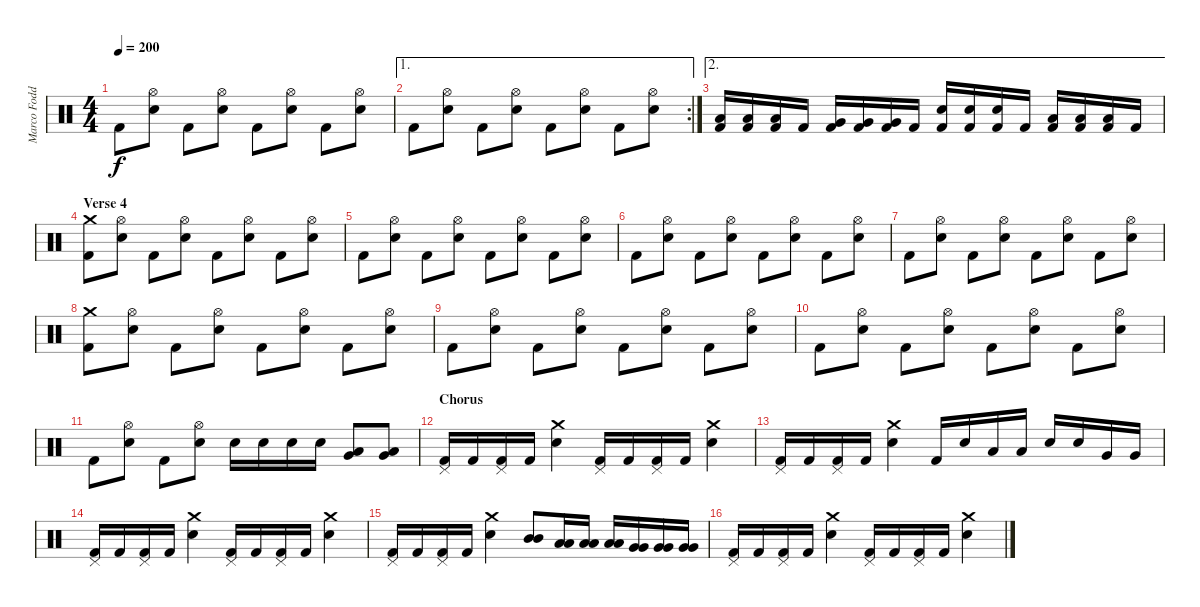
\track ("Marco Foddis " "Marco Fodd") {instrument percussion}
\staff {score}
\articulation defaults
\ts (4 4)
\tempo 200
\clef neutral
\ks c "Kick (hit) 2".8{dy f}
("Hi-Hat (open)" "Electric Snare (hit)").8 "Kick (hit) 2".8 ("Hi-Hat (open)" "Electric Snare (hit)").8 "Kick (hit) 2".8 ("Hi-Hat (open)" "Electric Snare (hit)").8 "Kick (hit) 2".8 ("Hi-Hat (open)" "Electric Snare (hit)").8 |
\ae 1
\rc 2 "Kick (hit) 2".8
("Hi-Hat (open)" "Electric Snare (hit)").8 "Kick (hit) 2".8 ("Hi-Hat (open)" "Electric Snare (hit)").8 "Kick (hit) 2".8 ("Hi-Hat (open)" "Electric Snare (hit)").8 "Kick (hit) 2".8 ("Hi-Hat (open)" "Electric Snare (hit)").8 |
\ae 2
("Low Tom (hit)" "Kick (hit) 2").16 ("Low Tom (hit)" "Kick (hit) 2").16 ("Low Tom (hit)" "Kick (hit) 2").16 "Kick (hit) 2".16 ("Very Low Tom (hit)" "Kick (hit) 2").16 ("Very Low Tom (hit)" "Kick (hit) 2").16 ("Very Low Tom (hit)" "Kick (hit) 2").16 "Kick (hit) 2".16 ("Electric Snare (hit)" "Kick (hit) 2").16 ("Electric Snare (hit)" "Kick (hit) 2").16 ("Electric Snare (hit)" "Kick (hit) 2").16 "Kick (hit) 2".16 ("Low Floor Tom (hit)" "Kick (hit) 2").16 ("Low Floor Tom (hit)" "Kick (hit) 2").16 ("Low Floor Tom (hit)" "Kick (hit) 2").16 "Kick (hit) 2".16 |
\section ("" "Verse 4")
("Crash medium (hit)" "Kick (hit) 2").8 ("Hi-Hat (open)" "Electric Snare (hit)").8 "Kick (hit) 2".8 ("Hi-Hat (open)" "Electric Snare (hit)").8 "Kick (hit) 2".8 ("Hi-Hat (open)" "Electric Snare (hit)").8 "Kick (hit) 2".8 ("Hi-Hat (open)" "Electric Snare (hit)").8 |
"Kick (hit) 2".8 ("Hi-Hat (open)" "Electric Snare (hit)").8 "Kick (hit) 2".8 ("Hi-Hat (open)" "Electric Snare (hit)").8 "Kick (hit) 2".8 ("Hi-Hat (open)" "Electric Snare (hit)").8 "Kick (hit) 2".8 ("Hi-Hat (open)" "Electric Snare (hit)").8 |
"Kick (hit) 2".8 ("Hi-Hat (open)" "Electric Snare (hit)").8 "Kick (hit) 2".8 ("Hi-Hat (open)" "Electric Snare (hit)").8 "Kick (hit) 2".8 ("Hi-Hat (open)" "Electric Snare (hit)").8 "Kick (hit) 2".8 ("Hi-Hat (open)" "Electric Snare (hit)").8 |
"Kick (hit) 2".8 ("Hi-Hat (open)" "Electric Snare (hit)").8 "Kick (hit) 2".8 ("Hi-Hat (open)" "Electric Snare (hit)").8 "Kick (hit) 2".8 ("Hi-Hat (open)" "Electric Snare (hit)").8 "Kick (hit) 2".8 ("Hi-Hat (open)" "Electric Snare (hit)").8 |
("Crash medium (hit)" "Kick (hit) 2").8 ("Hi-Hat (open)" "Electric Snare (hit)").8 "Kick (hit) 2".8 ("Hi-Hat (open)" "Electric Snare (hit)").8 "Kick (hit) 2".8 ("Hi-Hat (open)" "Electric Snare (hit)").8 "Kick (hit) 2".8 ("Hi-Hat (open)" "Electric Snare (hit)").8 |
"Kick (hit) 2".8 ("Hi-Hat (open)" "Electric Snare (hit)").8 "Kick (hit) 2".8 ("Hi-Hat (open)" "Electric Snare (hit)").8 "Kick (hit) 2".8 ("Hi-Hat (open)" "Electric Snare (hit)").8 "Kick (hit) 2".8 ("Hi-Hat (open)" "Electric Snare (hit)").8 |
"Kick (hit) 2".8 ("Hi-Hat (open)" "Electric Snare (hit)").8 "Kick (hit) 2".8 ("Hi-Hat (open)" "Electric Snare (hit)").8 "Kick (hit) 2".8 ("Hi-Hat (open)" "Electric Snare (hit)").8 "Kick (hit) 2".8 ("Hi-Hat (open)" "Electric Snare (hit)").8 |
"Kick (hit) 2".8 ("Hi-Hat (open)" "Electric Snare (hit)").8 "Kick (hit) 2".8 ("Hi-Hat (open)" "Electric Snare (hit)").8 "Electric Snare (hit)".16 "Electric Snare (hit)".16 "Electric Snare (hit)".16 "Electric Snare (hit)".16 ("Low Tom (hit)" "Very Low Tom (hit)").8 ("Low Tom (hit)" "Very Low Tom (hit)").8 |
\section ("" "Chorus")
("Pedal Hi-Hat (hit)" "Kick (hit) 2").16 "Kick (hit) 2".16 ("Pedal Hi-Hat (hit)" "Kick (hit) 2").16 "Kick (hit) 2".16 ("Crash medium (hit)" "Electric Snare (hit)").4 ("Pedal Hi-Hat (hit)" "Kick (hit) 2").16 "Kick (hit) 2".16 ("Pedal Hi-Hat (hit)" "Kick (hit) 2").16 "Kick (hit) 2".16 ("Crash medium (hit)" "Electric Snare (hit)").4 |
("Pedal Hi-Hat (hit)" "Kick (hit) 2").16 "Kick (hit) 2".16 ("Pedal Hi-Hat (hit)" "Kick (hit) 2").16 "Kick (hit) 2".16 ("Crash medium (hit)" "Electric Snare (hit)").4 "Kick (hit) 2".16 "Electric Snare (hit)".16 "Low Tom (hit)".16 "Low Tom (hit)".16 "Electric Snare (hit)".16 "Electric Snare (hit)".16 "Very Low Tom (hit)".16 "Very Low Tom (hit)".16 |
("Pedal Hi-Hat (hit)" "Kick (hit) 2").16 "Kick (hit) 2".16 ("Pedal Hi-Hat (hit)" "Kick (hit) 2").16 "Kick (hit) 2".16 ("Crash medium (hit)" "Electric Snare (hit)").4 ("Pedal Hi-Hat (hit)" "Kick (hit) 2").16 "Kick (hit) 2".16 ("Pedal Hi-Hat (hit)" "Kick (hit) 2").16 "Kick (hit) 2".16 ("Crash medium (hit)" "Electric Snare (hit)").4 |
("Pedal Hi-Hat (hit)" "Kick (hit) 2").16 "Kick (hit) 2".16 ("Pedal Hi-Hat (hit)" "Kick (hit) 2").16 "Kick (hit) 2".16 ("Crash medium (hit)" "Electric Snare (hit)").4 ("Mid Tom (hit)" "Mid Tom (hit)").8 ("Low Tom (hit)" "Low Tom (hit)").16 ("Low Tom (hit)" "Low Tom (hit)").16 ("Low Tom (hit)" "Low Tom (hit)").16 ("Very Low Tom (hit)" "Very Low Tom (hit)").16 ("Very Low Tom (hit)" "Very Low Tom (hit)").16 ("Very Low Tom (hit)" "Very Low Tom (hit)").16 |
("Pedal Hi-Hat (hit)" "Kick (hit) 2").16 "Kick (hit) 2".16 ("Pedal Hi-Hat (hit)" "Kick (hit) 2").16 "Kick (hit) 2".16 ("Crash medium (hit)" "Electric Snare (hit)").4 ("Pedal Hi-Hat (hit)" "Kick (hit) 2").16 "Kick (hit) 2".16 ("Pedal Hi-Hat (hit)" "Kick (hit) 2").16 "Kick (hit) 2".16 ("Crash medium (hit)" "Electric Snare (hit)").4
